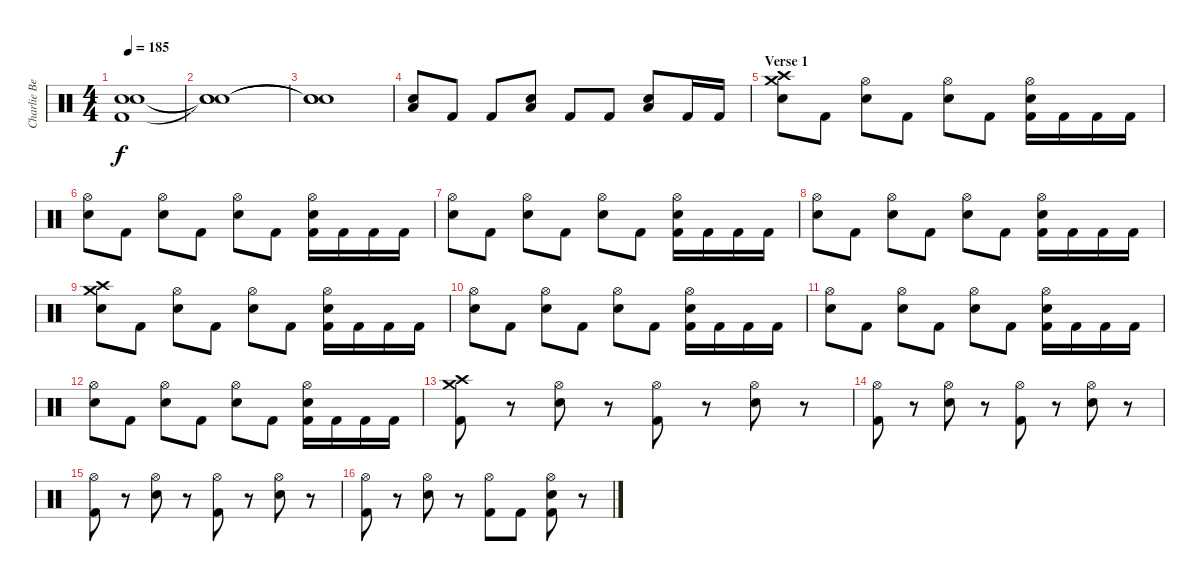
\track ("Charlie Benante" "Charlie Be") {instrument percussion}
\staff {score}
\articulation defaults
\ts (4 4)
\tempo 185
\clef neutral
\ks c
("Snare (hit)"{t} "Snare (hit)"{t} "Kick (hit) 2"{t}).1{dy f} |
("Snare (hit)"{t} "Snare (hit)"{t} "Snare (hit)"{t}).1 |
("Snare (hit)"{t} "Snare (hit)"{t} "Snare (hit)"{t}).1 |
("Low Floor Tom (hit)" "Snare (hit) 2").8 "Kick (hit) 2".8 "Kick (hit) 2".8 ("Low Floor Tom (hit)" "Snare (hit) 2").8 "Kick (hit) 2".8 "Kick (hit) 2".8 ("Low Floor Tom (hit)" "Snare (hit) 2").8 "Kick (hit) 2".16 "Kick (hit) 2".16 |
\section ("" "Verse 1")
("Crash high (hit)" "Crash medium (hit)" "Snare (hit) 2").8 "Kick (hit) 2".8 ("Hi-Hat (open)" "Snare (hit) 2").8 "Kick (hit) 2".8 ("Hi-Hat (open)" "Snare (hit) 2").8 "Kick (hit) 2".8 ("Hi-Hat (open)" "Snare (hit) 2" "Kick (hit) 2").16 "Kick (hit) 2".16 "Kick (hit) 2".16 "Kick (hit) 2".16 |
("Hi-Hat (open)" "Snare (hit) 2").8 "Kick (hit) 2".8 ("Hi-Hat (open)" "Snare (hit) 2").8 "Kick (hit) 2".8 ("Hi-Hat (open)" "Snare (hit) 2").8 "Kick (hit) 2".8 ("Hi-Hat (open)" "Snare (hit) 2" "Kick (hit) 2").16 "Kick (hit) 2".16 "Kick (hit) 2".16 "Kick (hit) 2".16 |
("Hi-Hat (open)" "Snare (hit) 2").8 "Kick (hit) 2".8 ("Hi-Hat (open)" "Snare (hit) 2").8 "Kick (hit) 2".8 ("Hi-Hat (open)" "Snare (hit) 2").8 "Kick (hit) 2".8 ("Hi-Hat (open)" "Snare (hit) 2" "Kick (hit) 2").16 "Kick (hit) 2".16 "Kick (hit) 2".16 "Kick (hit) 2".16 |
("Hi-Hat (open)" "Snare (hit) 2").8 "Kick (hit) 2".8 ("Hi-Hat (open)" "Snare (hit) 2").8 "Kick (hit) 2".8 ("Hi-Hat (open)" "Snare (hit) 2").8 "Kick (hit) 2".8 ("Hi-Hat (open)" "Snare (hit) 2" "Kick (hit) 2").16 "Kick (hit) 2".16 "Kick (hit) 2".16 "Kick (hit) 2".16 |
("Crash high (hit)" "Crash medium (hit)" "Snare (hit) 2").8 "Kick (hit) 2".8 ("Hi-Hat (open)" "Snare (hit) 2").8 "Kick (hit) 2".8 ("Hi-Hat (open)" "Snare (hit) 2").8 "Kick (hit) 2".8 ("Hi-Hat (open)" "Snare (hit) 2" "Kick (hit) 2").16 "Kick (hit) 2".16 "Kick (hit) 2".16 "Kick (hit) 2".16 |
("Hi-Hat (open)" "Snare (hit) 2").8 "Kick (hit) 2".8 ("Hi-Hat (open)" "Snare (hit) 2").8 "Kick (hit) 2".8 ("Hi-Hat (open)" "Snare (hit) 2").8 "Kick (hit) 2".8 ("Hi-Hat (open)" "Snare (hit) 2" "Kick (hit) 2").16 "Kick (hit) 2".16 "Kick (hit) 2".16 "Kick (hit) 2".16 |
("Hi-Hat (open)" "Snare (hit) 2").8 "Kick (hit) 2".8 ("Hi-Hat (open)" "Snare (hit) 2").8 "Kick (hit) 2".8 ("Hi-Hat (open)" "Snare (hit) 2").8 "Kick (hit) 2".8 ("Hi-Hat (open)" "Snare (hit) 2" "Kick (hit) 2").16 "Kick (hit) 2".16 "Kick (hit) 2".16 "Kick (hit) 2".16 |
("Hi-Hat (open)" "Snare (hit) 2").8 "Kick (hit) 2".8 ("Hi-Hat (open)" "Snare (hit) 2").8 "Kick (hit) 2".8 ("Hi-Hat (open)" "Snare (hit) 2").8 "Kick (hit) 2".8 ("Hi-Hat (open)" "Snare (hit) 2" "Kick (hit) 2").16 "Kick (hit) 2".16 "Kick (hit) 2".16 "Kick (hit) 2".16 |
("Crash high (hit)" "Crash medium (hit)" "Kick (hit) 2").8 r.8 ("Hi-Hat (open)" "Snare (hit) 2").8 r.8 ("Hi-Hat (open)" "Kick (hit) 2").8 r.8 ("Hi-Hat (open)" "Snare (hit) 2").8 r.8 |
("Hi-Hat (open)" "Kick (hit) 2").8 r.8 ("Hi-Hat (open)" "Snare (hit) 2").8 r.8 ("Hi-Hat (open)" "Kick (hit) 2").8 r.8 ("Hi-Hat (open)" "Snare (hit) 2").8 r.8 |
("Hi-Hat (open)" "Kick (hit) 2").8 r.8 ("Hi-Hat (open)" "Snare (hit) 2").8 r.8 ("Hi-Hat (open)" "Kick (hit) 2").8 r.8 ("Hi-Hat (open)" "Snare (hit) 2").8 r.8 |
("Hi-Hat (open)" "Kick (hit) 2").8 r.8 ("Hi-Hat (open)" "Snare (hit) 2").8 r.8 ("Hi-Hat (open)" "Kick (hit) 2").8 "Kick (hit) 2".8 ("Hi-Hat (open)" "Snare (hit) 2" "Kick (hit) 2").8 r.8
